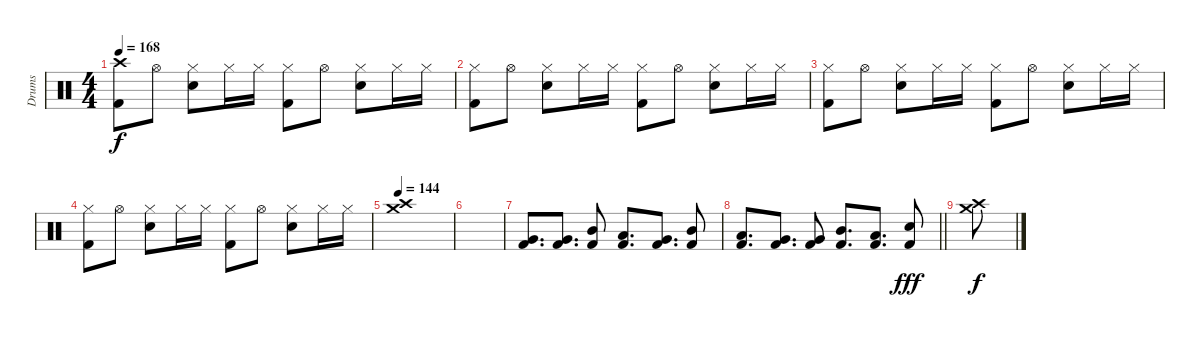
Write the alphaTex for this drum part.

\track ("Drums" "Drums") {instrument percussion}
\staff {score}
\articulation defaults
\ts (4 4)
\tempo 168
\clef neutral
\ks c
("Crash high (hit)" "Kick (hit) 2").8{dy f} "Hi-Hat (open)".8 ("Hi-Hat (closed)" "Electric Snare (hit)").8 "Hi-Hat (closed)".16 "Hi-Hat (closed)".16 ("Hi-Hat (closed)" "Kick (hit) 2").8 "Hi-Hat (open)".8 ("Hi-Hat (closed)" "Electric Snare (hit)").8 "Hi-Hat (closed)".16 "Hi-Hat (closed)".16 |
("Hi-Hat (closed)" "Kick (hit) 2").8 "Hi-Hat (open)".8 ("Hi-Hat (closed)" "Electric Snare (hit)").8 "Hi-Hat (closed)".16 "Hi-Hat (closed)".16 ("Hi-Hat (closed)" "Kick (hit) 2").8 "Hi-Hat (open)".8 ("Hi-Hat (closed)" "Electric Snare (hit)").8 "Hi-Hat (closed)".16 "Hi-Hat (closed)".16 |
("Hi-Hat (closed)" "Kick (hit) 2").8 "Hi-Hat (open)".8 ("Hi-Hat (closed)" "Electric Snare (hit)").8 "Hi-Hat (closed)".16 "Hi-Hat (closed)".16 ("Hi-Hat (closed)" "Kick (hit) 2").8 "Hi-Hat (open)".8 ("Hi-Hat (closed)" "Electric Snare (hit)").8 "Hi-Hat (closed)".16 "Hi-Hat (closed)".16 |
("Hi-Hat (closed)" "Kick (hit) 2").8 "Hi-Hat (open)".8 ("Hi-Hat (closed)" "Electric Snare (hit)").8 "Hi-Hat (closed)".16 "Hi-Hat (closed)".16 ("Hi-Hat (closed)" "Kick (hit) 2").8 "Hi-Hat (open)".8 ("Hi-Hat (closed)" "Electric Snare (hit)").8 "Hi-Hat (closed)".16 "Hi-Hat (closed)".16 |
\tempo 144
("Crash high (hit)" "Crash medium (hit)").1 |
|
("Very Low Tom (hit)" "Kick (hit) 2").8{d} ("Very Low Tom (hit)" "Kick (hit) 2").8{d} ("Mid Tom (hit)" "Kick (hit) 2").8 ("Low Tom (hit)" "Kick (hit) 2").8{d} ("Very Low Tom (hit)" "Kick (hit) 2").8{d} ("Mid Tom (hit)" "Kick (hit) 2").8 |
\barLineRight lightlight
("Low Tom (hit)" "Kick (hit) 2").8{d} ("Very Low Tom (hit)" "Kick (hit) 2").8{d} ("Very Low Tom (hit)" "Kick (hit) 2").8 ("Mid Tom (hit)" "Kick (hit) 2").8{d} ("Low Tom (hit)" "Kick (hit) 2").8{d} ("Electric Snare (hit)" "Kick (hit) 2").8{dy fff} |
("Crash medium (hit)" "Crash high (hit)").8{dy f}
